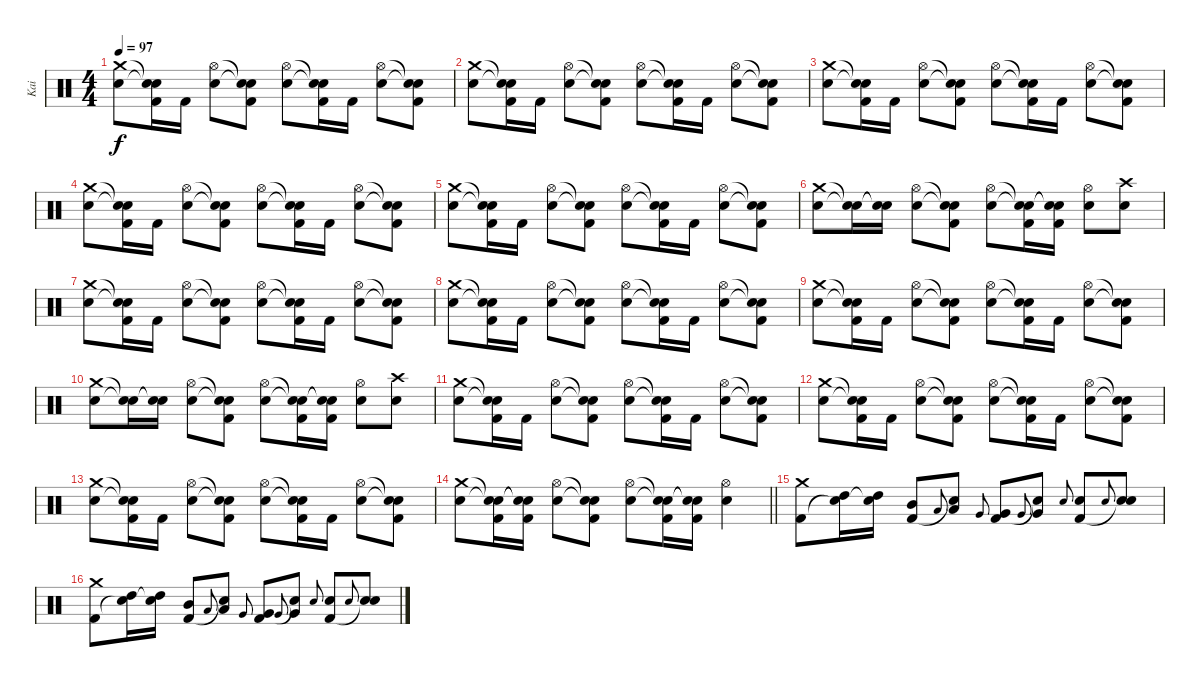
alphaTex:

\track ("Kai" "Kai") {instrument percussion}
\staff {score}
\articulation defaults
\ts (4 4)
\tempo 97
\clef neutral
\ks c
("Crash medium (hit)" "Snare (hit) 2").8{dy f} ("Snare (hit)"{t} "Snare (hit)"{t} "Kick (hit) 2").16 "Kick (hit) 2".16 ("Hi-Hat (open)" "Snare (hit) 2").8 ("Snare (hit)"{t} "Snare (hit)"{t} "Kick (hit) 2").8 ("Hi-Hat (open)" "Snare (hit) 2").8 ("Snare (hit)"{t} "Snare (hit)"{t} "Kick (hit) 2").16 "Kick (hit) 2".16 ("Hi-Hat (open)" "Snare (hit) 2").8 ("Snare (hit)"{t} "Snare (hit)"{t} "Kick (hit) 2").8 |
("Crash medium (hit)" "Snare (hit) 2").8 ("Snare (hit)"{t} "Snare (hit)"{t} "Kick (hit) 2").16 "Kick (hit) 2".16 ("Hi-Hat (open)" "Snare (hit) 2").8 ("Snare (hit)"{t} "Snare (hit)"{t} "Kick (hit) 2").8 ("Hi-Hat (open)" "Snare (hit) 2").8 ("Snare (hit)"{t} "Snare (hit)"{t} "Kick (hit) 2").16 "Kick (hit) 2".16 ("Hi-Hat (open)" "Snare (hit) 2").8 ("Snare (hit)"{t} "Snare (hit)"{t} "Kick (hit) 2").8 |
("Crash medium (hit)" "Snare (hit) 2").8 ("Snare (hit)"{t} "Snare (hit)"{t} "Kick (hit) 2").16 "Kick (hit) 2".16 ("Hi-Hat (open)" "Snare (hit) 2").8 ("Snare (hit)"{t} "Snare (hit)"{t} "Kick (hit) 2").8 ("Hi-Hat (open)" "Snare (hit) 2").8 ("Snare (hit)"{t} "Snare (hit)"{t} "Kick (hit) 2").16 "Kick (hit) 2".16 ("Hi-Hat (open)" "Snare (hit) 2").8 ("Snare (hit)"{t} "Snare (hit)"{t} "Kick (hit) 2").8 |
("Crash medium (hit)" "Snare (hit) 2").8 ("Snare (hit)"{t} "Snare (hit)"{t} "Kick (hit) 2").16 "Kick (hit) 2".16 ("Hi-Hat (open)" "Snare (hit) 2").8 ("Snare (hit)"{t} "Snare (hit)"{t} "Kick (hit) 2").8 ("Hi-Hat (open)" "Snare (hit) 2").8 ("Snare (hit)"{t} "Snare (hit)"{t} "Kick (hit) 2").16 "Kick (hit) 2".16 ("Hi-Hat (open)" "Snare (hit) 2").8 ("Snare (hit)"{t} "Snare (hit)"{t} "Kick (hit) 2").8 |
("Crash medium (hit)" "Snare (hit) 2").8 ("Snare (hit)"{t} "Snare (hit)"{t} "Kick (hit) 2").16 "Kick (hit) 2".16 ("Hi-Hat (open)" "Snare (hit) 2").8 ("Snare (hit)"{t} "Snare (hit)"{t} "Kick (hit) 2").8 ("Hi-Hat (open)" "Snare (hit) 2").8 ("Snare (hit)"{t} "Snare (hit)"{t} "Kick (hit) 2").16 "Kick (hit) 2".16 ("Hi-Hat (open)" "Snare (hit) 2").8 ("Snare (hit)"{t} "Snare (hit)"{t} "Kick (hit) 2").8 |
("Crash medium (hit)" "Snare (hit) 2").8 ("Snare (hit)"{t} "Snare (hit)"{t}).16 ("Snare (hit)"{t} "Snare (hit)"{t}).16 ("Hi-Hat (open)" "Snare (hit) 2").8 ("Snare (hit)"{t} "Snare (hit)"{t} "Kick (hit) 2").8 ("Hi-Hat (open)" "Snare (hit) 2").8 ("Snare (hit)"{t} "Snare (hit)"{t} "Kick (hit) 2").16 ("Snare (hit)"{t} "Snare (hit)"{t} "Kick (hit) 2").16 ("Hi-Hat (open)" "Snare (hit) 2").8 ("Crash high (hit)" "Snare (hit) 2").8 |
("Crash medium (hit)" "Snare (hit) 2").8 ("Snare (hit)"{t} "Snare (hit)"{t} "Kick (hit) 2").16 "Kick (hit) 2".16 ("Hi-Hat (open)" "Snare (hit) 2").8 ("Snare (hit)"{t} "Snare (hit)"{t} "Kick (hit) 2").8 ("Hi-Hat (open)" "Snare (hit) 2").8 ("Snare (hit)"{t} "Snare (hit)"{t} "Kick (hit) 2").16 "Kick (hit) 2".16 ("Hi-Hat (open)" "Snare (hit) 2").8 ("Snare (hit)"{t} "Snare (hit)"{t} "Kick (hit) 2").8 |
("Crash medium (hit)" "Snare (hit) 2").8 ("Snare (hit)"{t} "Snare (hit)"{t} "Kick (hit) 2").16 "Kick (hit) 2".16 ("Hi-Hat (open)" "Snare (hit) 2").8 ("Snare (hit)"{t} "Snare (hit)"{t} "Kick (hit) 2").8 ("Hi-Hat (open)" "Snare (hit) 2").8 ("Snare (hit)"{t} "Snare (hit)"{t} "Kick (hit) 2").16 "Kick (hit) 2".16 ("Hi-Hat (open)" "Snare (hit) 2").8 ("Snare (hit)"{t} "Snare (hit)"{t} "Kick (hit) 2").8 |
("Crash medium (hit)" "Snare (hit) 2").8 ("Snare (hit)"{t} "Snare (hit)"{t} "Kick (hit) 2").16 "Kick (hit) 2".16 ("Hi-Hat (open)" "Snare (hit) 2").8 ("Snare (hit)"{t} "Snare (hit)"{t} "Kick (hit) 2").8 ("Hi-Hat (open)" "Snare (hit) 2").8 ("Snare (hit)"{t} "Snare (hit)"{t} "Kick (hit) 2").16 "Kick (hit) 2".16 ("Hi-Hat (open)" "Snare (hit) 2").8 ("Snare (hit)"{t} "Snare (hit)"{t} "Kick (hit) 2").8 |
("Crash medium (hit)" "Snare (hit) 2").8 ("Snare (hit)"{t} "Snare (hit)"{t}).16 ("Snare (hit)"{t} "Snare (hit)"{t}).16 ("Hi-Hat (open)" "Snare (hit) 2").8 ("Snare (hit)"{t} "Snare (hit)"{t} "Kick (hit) 2").8 ("Hi-Hat (open)" "Snare (hit) 2").8 ("Snare (hit)"{t} "Snare (hit)"{t} "Kick (hit) 2").16 ("Snare (hit)"{t} "Snare (hit)"{t} "Kick (hit) 2").16 ("Hi-Hat (open)" "Snare (hit) 2").8 ("Crash high (hit)" "Snare (hit) 2").8 |
("Crash medium (hit)" "Snare (hit) 2").8 ("Snare (hit)"{t} "Snare (hit)"{t} "Kick (hit) 2").16 "Kick (hit) 2".16 ("Hi-Hat (open)" "Snare (hit) 2").8 ("Snare (hit)"{t} "Snare (hit)"{t} "Kick (hit) 2").8 ("Hi-Hat (open)" "Snare (hit) 2").8 ("Snare (hit)"{t} "Snare (hit)"{t} "Kick (hit) 2").16 "Kick (hit) 2".16 ("Hi-Hat (open)" "Snare (hit) 2").8 ("Snare (hit)"{t} "Snare (hit)"{t} "Kick (hit) 2").8 |
("Crash medium (hit)" "Snare (hit) 2").8 ("Snare (hit)"{t} "Snare (hit)"{t} "Kick (hit) 2").16 "Kick (hit) 2".16 ("Hi-Hat (open)" "Snare (hit) 2").8 ("Snare (hit)"{t} "Snare (hit)"{t} "Kick (hit) 2").8 ("Hi-Hat (open)" "Snare (hit) 2").8 ("Snare (hit)"{t} "Snare (hit)"{t} "Kick (hit) 2").16 "Kick (hit) 2".16 ("Hi-Hat (open)" "Snare (hit) 2").8 ("Snare (hit)"{t} "Snare (hit)"{t} "Kick (hit) 2").8 |
("Crash medium (hit)" "Snare (hit) 2").8 ("Snare (hit)"{t} "Snare (hit)"{t} "Kick (hit) 2").16 "Kick (hit) 2".16 ("Hi-Hat (open)" "Snare (hit) 2").8 ("Snare (hit)"{t} "Snare (hit)"{t} "Kick (hit) 2").8 ("Hi-Hat (open)" "Snare (hit) 2").8 ("Snare (hit)"{t} "Snare (hit)"{t} "Kick (hit) 2").16 "Kick (hit) 2".16 ("Hi-Hat (open)" "Snare (hit) 2").8 ("Snare (hit)"{t} "Snare (hit)"{t} "Kick (hit) 2").8 |
\barLineRight lightlight
("Crash medium (hit)" "Snare (hit) 2").8 ("Snare (hit)"{t} "Snare (hit)"{t} "Kick (hit) 2").16 ("Snare (hit)"{t} "Snare (hit)"{t} "Kick (hit) 2").16 ("Hi-Hat (open)" "Snare (hit) 2").8 ("Snare (hit)"{t} "Snare (hit)"{t} "Kick (hit) 2").8 ("Hi-Hat (open)" "Snare (hit) 2").8 ("Snare (hit)"{t} "Snare (hit)"{t} "Kick (hit) 2").16 ("Snare (hit)"{t} "Snare (hit)"{t} "Kick (hit) 2").16 ("Hi-Hat (open)" "Snare (hit) 2").4 |
("Crash medium (hit)" "Kick (hit) 2").8 ("High Tom (hit)" "Snare (hit)"{t}).16 ("High Tom (hit)" "Snare (hit)"{t}).16 ("Mid Tom (hit)" "Kick (hit) 2").8 "Low Tom (hit)".8{gr onbeat} ("Low Tom (hit)" "Snare (hit)"{t}).8 "Very Low Tom (hit)".8{gr onbeat} ("Very Low Tom (hit)" "Kick (hit) 2").8 "Very Low Tom (hit)".8{gr onbeat} ("Very Low Tom (hit)" "Snare (hit)"{t}).8 "Snare (hit) 2".8{gr onbeat} ("Snare (hit) 2" "Kick (hit) 2").8 "Snare (hit) 2".8{gr onbeat} ("Snare (hit) 2" "Snare (hit)"{t}).8 |
("Crash medium (hit)" "Kick (hit) 2").8 ("High Tom (hit)" "Snare (hit)"{t}).16 ("High Tom (hit)" "Snare (hit)"{t}).16 ("Mid Tom (hit)" "Kick (hit) 2").8 "Low Tom (hit)".8{gr onbeat} ("Low Tom (hit)" "Snare (hit)"{t}).8 "Very Low Tom (hit)".8{gr onbeat} ("Very Low Tom (hit)" "Kick (hit) 2").8 "Very Low Tom (hit)".8{gr onbeat} ("Very Low Tom (hit)" "Snare (hit)"{t}).8 "Snare (hit) 2".8{gr onbeat} ("Snare (hit) 2" "Kick (hit) 2").8 "Snare (hit) 2".8{gr onbeat} ("Snare (hit) 2" "Snare (hit)"{t}).8
